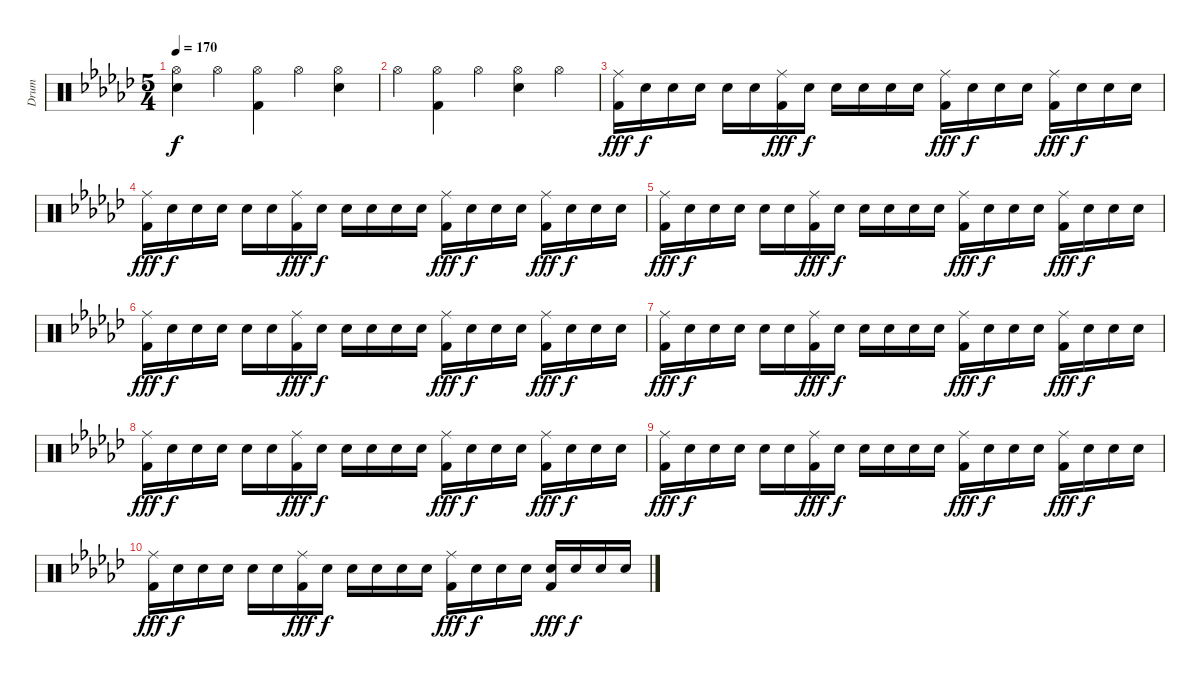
\track ("Drum" "Drum") {instrument percussion}
\staff {score}
\articulation defaults
\ts (5 4)
\tempo 170
\clef neutral
\ks gb
("Hi-Hat (open)" "Snare (hit) 2").4{dy f} "Hi-Hat (open)".4 ("Hi-Hat (open)" "Kick (hit) 2").4 "Hi-Hat (open)".4 ("Hi-Hat (open)" "Snare (hit) 2").4 |
"Hi-Hat (open)".4 ("Hi-Hat (open)" "Kick (hit) 2").4 "Hi-Hat (open)".4 ("Hi-Hat (open)" "Snare (hit) 2").4 "Hi-Hat (open)".4 |
("Ride (middle)" "Kick (hit) 2").16{dy fff volume 5} "Snare (hit) 2".16{dy f} "Snare (hit) 2".16 "Snare (hit) 2".16 "Snare (hit) 2".16 "Snare (hit) 2".16 ("Ride (middle)" "Kick (hit) 2").16{dy fff} "Snare (hit) 2".16{dy f} "Snare (hit) 2".16 "Snare (hit) 2".16 "Snare (hit) 2".16 "Snare (hit) 2".16 ("Ride (middle)" "Kick (hit) 2").16{dy fff} "Snare (hit) 2".16{dy f} "Snare (hit) 2".16 "Snare (hit) 2".16 ("Ride (middle)" "Kick (hit) 2").16{dy fff} "Snare (hit) 2".16{dy f} "Snare (hit) 2".16 "Snare (hit) 2".16 |
("Ride (middle)" "Kick (hit) 2").16{dy fff} "Snare (hit) 2".16{dy f} "Snare (hit) 2".16 "Snare (hit) 2".16 "Snare (hit) 2".16 "Snare (hit) 2".16 ("Ride (middle)" "Kick (hit) 2").16{dy fff} "Snare (hit) 2".16{dy f} "Snare (hit) 2".16 "Snare (hit) 2".16 "Snare (hit) 2".16 "Snare (hit) 2".16 ("Ride (middle)" "Kick (hit) 2").16{dy fff} "Snare (hit) 2".16{dy f} "Snare (hit) 2".16 "Snare (hit) 2".16 ("Ride (middle)" "Kick (hit) 2").16{dy fff} "Snare (hit) 2".16{dy f} "Snare (hit) 2".16 "Snare (hit) 2".16 |
("Ride (middle)" "Kick (hit) 2").16{dy fff} "Snare (hit) 2".16{dy f} "Snare (hit) 2".16 "Snare (hit) 2".16 "Snare (hit) 2".16 "Snare (hit) 2".16 ("Ride (middle)" "Kick (hit) 2").16{dy fff} "Snare (hit) 2".16{dy f} "Snare (hit) 2".16 "Snare (hit) 2".16 "Snare (hit) 2".16 "Snare (hit) 2".16 ("Ride (middle)" "Kick (hit) 2").16{dy fff} "Snare (hit) 2".16{dy f} "Snare (hit) 2".16 "Snare (hit) 2".16 ("Ride (middle)" "Kick (hit) 2").16{dy fff} "Snare (hit) 2".16{dy f} "Snare (hit) 2".16 "Snare (hit) 2".16 |
("Ride (middle)" "Kick (hit) 2").16{dy fff} "Snare (hit) 2".16{dy f} "Snare (hit) 2".16 "Snare (hit) 2".16 "Snare (hit) 2".16 "Snare (hit) 2".16 ("Ride (middle)" "Kick (hit) 2").16{dy fff} "Snare (hit) 2".16{dy f} "Snare (hit) 2".16 "Snare (hit) 2".16 "Snare (hit) 2".16 "Snare (hit) 2".16 ("Ride (middle)" "Kick (hit) 2").16{dy fff} "Snare (hit) 2".16{dy f} "Snare (hit) 2".16 "Snare (hit) 2".16 ("Ride (middle)" "Kick (hit) 2").16{dy fff} "Snare (hit) 2".16{dy f} "Snare (hit) 2".16 "Snare (hit) 2".16 |
("Ride (middle)" "Kick (hit) 2").16{dy fff} "Snare (hit) 2".16{dy f} "Snare (hit) 2".16 "Snare (hit) 2".16 "Snare (hit) 2".16 "Snare (hit) 2".16 ("Ride (middle)" "Kick (hit) 2").16{dy fff} "Snare (hit) 2".16{dy f} "Snare (hit) 2".16 "Snare (hit) 2".16 "Snare (hit) 2".16 "Snare (hit) 2".16 ("Ride (middle)" "Kick (hit) 2").16{dy fff} "Snare (hit) 2".16{dy f} "Snare (hit) 2".16 "Snare (hit) 2".16 ("Ride (middle)" "Kick (hit) 2").16{dy fff} "Snare (hit) 2".16{dy f} "Snare (hit) 2".16 "Snare (hit) 2".16 |
("Ride (middle)" "Kick (hit) 2").16{dy fff} "Snare (hit) 2".16{dy f} "Snare (hit) 2".16 "Snare (hit) 2".16 "Snare (hit) 2".16 "Snare (hit) 2".16 ("Ride (middle)" "Kick (hit) 2").16{dy fff} "Snare (hit) 2".16{dy f} "Snare (hit) 2".16 "Snare (hit) 2".16 "Snare (hit) 2".16 "Snare (hit) 2".16 ("Ride (middle)" "Kick (hit) 2").16{dy fff} "Snare (hit) 2".16{dy f} "Snare (hit) 2".16 "Snare (hit) 2".16 ("Ride (middle)" "Kick (hit) 2").16{dy fff} "Snare (hit) 2".16{dy f} "Snare (hit) 2".16 "Snare (hit) 2".16 |
("Ride (middle)" "Kick (hit) 2").16{dy fff} "Snare (hit) 2".16{dy f} "Snare (hit) 2".16 "Snare (hit) 2".16 "Snare (hit) 2".16 "Snare (hit) 2".16 ("Ride (middle)" "Kick (hit) 2").16{dy fff} "Snare (hit) 2".16{dy f} "Snare (hit) 2".16 "Snare (hit) 2".16 "Snare (hit) 2".16 "Snare (hit) 2".16 ("Ride (middle)" "Kick (hit) 2").16{dy fff} "Snare (hit) 2".16{dy f} "Snare (hit) 2".16 "Snare (hit) 2".16 ("Ride (middle)" "Kick (hit) 2").16{dy fff} "Snare (hit) 2".16{dy f} "Snare (hit) 2".16 "Snare (hit) 2".16 |
("Ride (middle)" "Kick (hit) 2").16{dy fff} "Snare (hit) 2".16{dy f} "Snare (hit) 2".16 "Snare (hit) 2".16 "Snare (hit) 2".16 "Snare (hit) 2".16 ("Ride (middle)" "Kick (hit) 2").16{dy fff} "Snare (hit) 2".16{dy f} "Snare (hit) 2".16 "Snare (hit) 2".16 "Snare (hit) 2".16 "Snare (hit) 2".16 ("Ride (middle)" "Kick (hit) 2").16{dy fff} "Snare (hit) 2".16{dy f} "Snare (hit) 2".16 "Snare (hit) 2".16 ("Snare (hit) 2" "Kick (hit) 2").16{dy fff} "Snare (hit) 2".16{dy f} "Snare (hit) 2".16 "Snare (hit) 2".16
